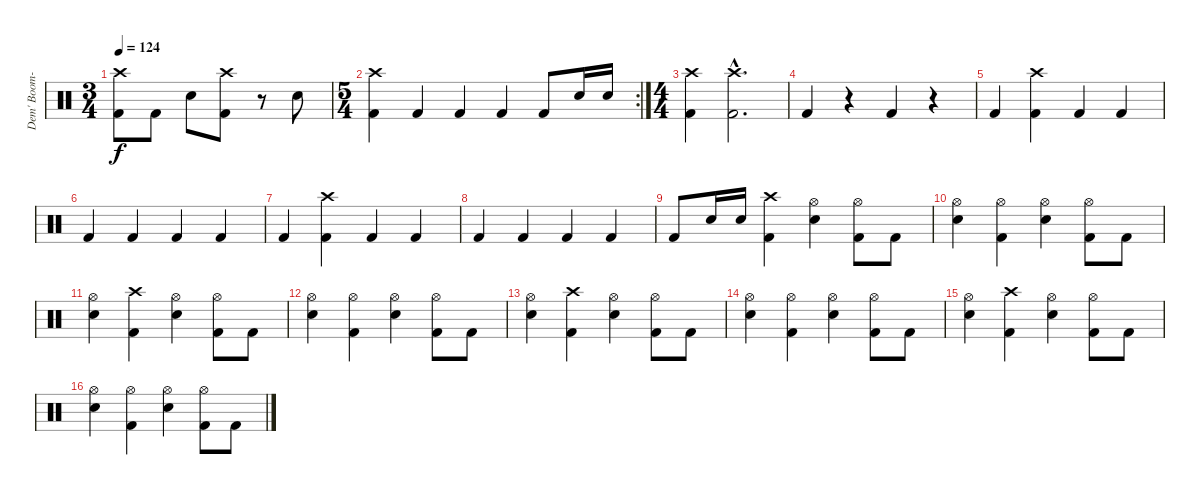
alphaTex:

\track ("Dem' Boom-Booms" "Dem' Boom-") {instrument percussion}
\staff {score}
\articulation defaults
\ts (3 4)
\tempo 124
\clef neutral
\ks c
("Crash high (hit)" "Kick (hit) 2").8{dy f} "Kick (hit) 2".8 "Electric Snare (hit)".8 ("Crash high (hit)" "Kick (hit) 2").8 r.8 "Electric Snare (hit)".8 |
\rc 2
\ts (5 4)
("Crash high (hit)" "Kick (hit) 2").4 "Kick (hit) 2".4 "Kick (hit) 2".4 "Kick (hit) 2".4 "Kick (hit) 2".8 "Electric Snare (hit)".16 "Electric Snare (hit)".16 |
\ts (4 4)
("Crash high (hit)" "Kick (hit) 2").4 ("Crash high (hit)"{hac} "Kick (hit) 2"{hac}).2{d} |
"Kick (hit) 2".4 r.4 "Kick (hit) 2".4 r.4 |
"Kick (hit) 2".4 ("Crash high (hit)" "Kick (hit) 2").4 "Kick (hit) 2".4 "Kick (hit) 2".4 |
"Kick (hit) 2".4 "Kick (hit) 2".4 "Kick (hit) 2".4 "Kick (hit) 2".4 |
"Kick (hit) 2".4 ("Crash high (hit)" "Kick (hit) 2").4 "Kick (hit) 2".4 "Kick (hit) 2".4 |
"Kick (hit) 2".4 "Kick (hit) 2".4 "Kick (hit) 2".4 "Kick (hit) 2".4 |
"Kick (hit) 2".8 "Electric Snare (hit)".16 "Electric Snare (hit)".16 ("Crash high (hit)" "Kick (hit) 2").4 ("Hi-Hat (open)" "Electric Snare (hit)").4 ("Hi-Hat (open)" "Kick (hit) 2").8 "Kick (hit) 2".8 |
("Hi-Hat (open)" "Electric Snare (hit)").4 ("Hi-Hat (open)" "Kick (hit) 2").4 ("Hi-Hat (open)" "Electric Snare (hit)").4 ("Hi-Hat (open)" "Kick (hit) 2").8 "Kick (hit) 2".8 |
("Hi-Hat (open)" "Electric Snare (hit)").4 ("Crash high (hit)" "Kick (hit) 2").4 ("Hi-Hat (open)" "Electric Snare (hit)").4 ("Hi-Hat (open)" "Kick (hit) 2").8 "Kick (hit) 2".8 |
("Hi-Hat (open)" "Electric Snare (hit)").4 ("Hi-Hat (open)" "Kick (hit) 2").4 ("Hi-Hat (open)" "Electric Snare (hit)").4 ("Hi-Hat (open)" "Kick (hit) 2").8 "Kick (hit) 2".8 |
("Hi-Hat (open)" "Electric Snare (hit)").4 ("Crash high (hit)" "Kick (hit) 2").4 ("Hi-Hat (open)" "Electric Snare (hit)").4 ("Hi-Hat (open)" "Kick (hit) 2").8 "Kick (hit) 2".8 |
("Hi-Hat (open)" "Electric Snare (hit)").4 ("Hi-Hat (open)" "Kick (hit) 2").4 ("Hi-Hat (open)" "Electric Snare (hit)").4 ("Hi-Hat (open)" "Kick (hit) 2").8 "Kick (hit) 2".8 |
("Hi-Hat (open)" "Electric Snare (hit)").4 ("Crash high (hit)" "Kick (hit) 2").4 ("Hi-Hat (open)" "Electric Snare (hit)").4 ("Hi-Hat (open)" "Kick (hit) 2").8 "Kick (hit) 2".8 |
("Hi-Hat (open)" "Electric Snare (hit)").4 ("Hi-Hat (open)" "Kick (hit) 2").4 ("Hi-Hat (open)" "Electric Snare (hit)").4 ("Hi-Hat (open)" "Kick (hit) 2").8 "Kick (hit) 2".8
